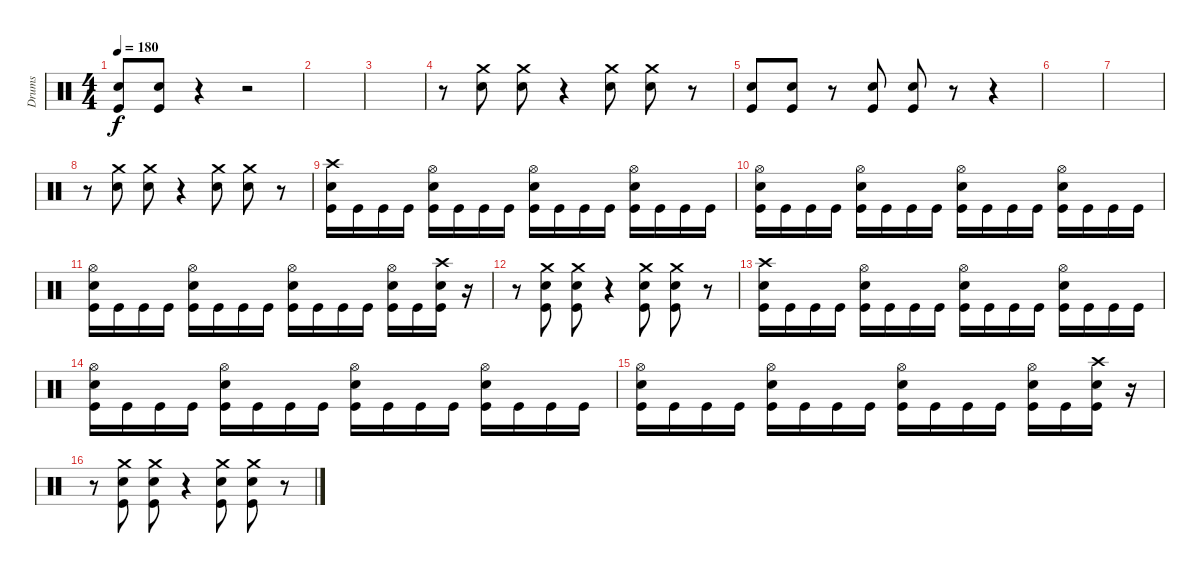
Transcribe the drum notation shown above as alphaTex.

\track ("Drums" "Drums") {instrument percussion}
\staff {score}
\articulation defaults
\ts (4 4)
\tempo 180
\clef neutral
\ks c
("Snare (hit) 2" "Kick (hit)").8{dy f} ("Snare (hit) 2" "Kick (hit)").8 r.4 r.2 |
|
|
r.8 ("Crash medium (hit)" "Snare (hit) 2").8 ("Crash medium (hit)" "Snare (hit) 2").8 r.4 ("Crash medium (hit)" "Snare (hit) 2").8 ("Crash medium (hit)" "Snare (hit) 2").8 r.8 |
("Snare (hit) 2" "Kick (hit)").8 ("Snare (hit) 2" "Kick (hit)").8 r.8 ("Snare (hit) 2" "Kick (hit)").8 ("Snare (hit) 2" "Kick (hit)").8 r.8 r.4 |
|
|
r.8 ("Crash medium (hit)" "Snare (hit) 2").8 ("Crash medium (hit)" "Snare (hit) 2").8 r.4 ("Crash medium (hit)" "Snare (hit) 2").8 ("Crash medium (hit)" "Snare (hit) 2").8 r.8 |
("Crash high (hit)" "Snare (hit) 2" "Kick (hit)").16 "Kick (hit)".16 "Kick (hit)".16 "Kick (hit)".16 ("Hi-Hat (open)" "Snare (hit) 2" "Kick (hit)").16 "Kick (hit)".16 "Kick (hit)".16 "Kick (hit)".16 ("Hi-Hat (open)" "Snare (hit) 2" "Kick (hit)").16 "Kick (hit)".16 "Kick (hit)".16 "Kick (hit)".16 ("Hi-Hat (open)" "Snare (hit) 2" "Kick (hit)").16 "Kick (hit)".16 "Kick (hit)".16 "Kick (hit)".16 |
("Hi-Hat (open)" "Snare (hit) 2" "Kick (hit)").16 "Kick (hit)".16 "Kick (hit)".16 "Kick (hit)".16 ("Hi-Hat (open)" "Snare (hit) 2" "Kick (hit)").16 "Kick (hit)".16 "Kick (hit)".16 "Kick (hit)".16 ("Hi-Hat (open)" "Snare (hit) 2" "Kick (hit)").16 "Kick (hit)".16 "Kick (hit)".16 "Kick (hit)".16 ("Hi-Hat (open)" "Snare (hit) 2" "Kick (hit)").16 "Kick (hit)".16 "Kick (hit)".16 "Kick (hit)".16 |
("Hi-Hat (open)" "Snare (hit) 2" "Kick (hit)").16 "Kick (hit)".16 "Kick (hit)".16 "Kick (hit)".16 ("Hi-Hat (open)" "Snare (hit) 2" "Kick (hit)").16 "Kick (hit)".16 "Kick (hit)".16 "Kick (hit)".16 ("Hi-Hat (open)" "Snare (hit) 2" "Kick (hit)").16 "Kick (hit)".16 "Kick (hit)".16 "Kick (hit)".16 ("Hi-Hat (open)" "Snare (hit) 2" "Kick (hit)").16 "Kick (hit)".16 ("Crash high (hit)" "Snare (hit) 2" "Kick (hit)").16 r.16 |
r.8 ("Crash medium (hit)" "Snare (hit) 2" "Kick (hit)").8 ("Crash medium (hit)" "Snare (hit) 2" "Kick (hit)").8 r.4 ("Crash medium (hit)" "Snare (hit) 2" "Kick (hit)").8 ("Crash medium (hit)" "Snare (hit) 2" "Kick (hit)").8 r.8 |
("Crash high (hit)" "Snare (hit) 2" "Kick (hit)").16 "Kick (hit)".16 "Kick (hit)".16 "Kick (hit)".16 ("Hi-Hat (open)" "Snare (hit) 2" "Kick (hit)").16 "Kick (hit)".16 "Kick (hit)".16 "Kick (hit)".16 ("Hi-Hat (open)" "Snare (hit) 2" "Kick (hit)").16 "Kick (hit)".16 "Kick (hit)".16 "Kick (hit)".16 ("Hi-Hat (open)" "Snare (hit) 2" "Kick (hit)").16 "Kick (hit)".16 "Kick (hit)".16 "Kick (hit)".16 |
("Hi-Hat (open)" "Snare (hit) 2" "Kick (hit)").16 "Kick (hit)".16 "Kick (hit)".16 "Kick (hit)".16 ("Hi-Hat (open)" "Snare (hit) 2" "Kick (hit)").16 "Kick (hit)".16 "Kick (hit)".16 "Kick (hit)".16 ("Hi-Hat (open)" "Snare (hit) 2" "Kick (hit)").16 "Kick (hit)".16 "Kick (hit)".16 "Kick (hit)".16 ("Hi-Hat (open)" "Snare (hit) 2" "Kick (hit)").16 "Kick (hit)".16 "Kick (hit)".16 "Kick (hit)".16 |
("Hi-Hat (open)" "Snare (hit) 2" "Kick (hit)").16 "Kick (hit)".16 "Kick (hit)".16 "Kick (hit)".16 ("Hi-Hat (open)" "Snare (hit) 2" "Kick (hit)").16 "Kick (hit)".16 "Kick (hit)".16 "Kick (hit)".16 ("Hi-Hat (open)" "Snare (hit) 2" "Kick (hit)").16 "Kick (hit)".16 "Kick (hit)".16 "Kick (hit)".16 ("Hi-Hat (open)" "Snare (hit) 2" "Kick (hit)").16 "Kick (hit)".16 ("Crash high (hit)" "Snare (hit) 2" "Kick (hit)").16 r.16 |
r.8 ("Crash medium (hit)" "Snare (hit) 2" "Kick (hit)").8 ("Crash medium (hit)" "Snare (hit) 2" "Kick (hit)").8 r.4 ("Crash medium (hit)" "Snare (hit) 2" "Kick (hit)").8 ("Crash medium (hit)" "Snare (hit) 2" "Kick (hit)").8 r.8
